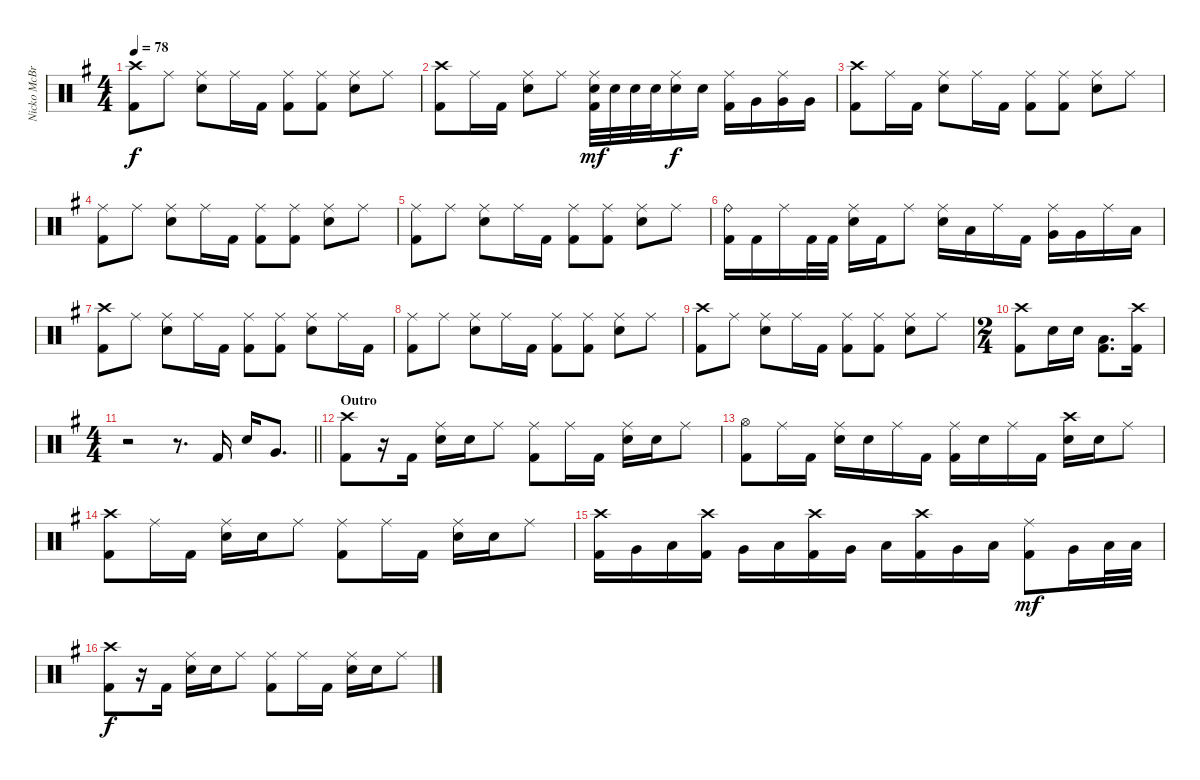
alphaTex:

\track ("Nicko McBrain" "Nicko McBr") {instrument percussion}
\staff {score}
\articulation defaults
\ts (4 4)
\tempo 78
\clef neutral
\ks g
("Crash high (hit)" "Kick (hit) 2").8{dy f} "Ride (middle)".8 ("Ride (middle)" "Electric Snare (hit)").8 "Ride (middle)".16 "Kick (hit) 2".16 ("Ride (middle)" "Kick (hit) 2").8 ("Ride (middle)" "Kick (hit) 2").8 ("Ride (middle)" "Electric Snare (hit)").8 "Ride (middle)".8 |
("Crash high (hit)" "Kick (hit) 2").8 "Ride (middle)".16 "Kick (hit) 2".16 ("Ride (middle)" "Electric Snare (hit)").8 "Ride (middle)".8 ("Ride (middle)" "Electric Snare (hit)" "Kick (hit) 2").32{dy mf} "Electric Snare (hit)".32 "Electric Snare (hit)".32 "Electric Snare (hit)".32 ("Ride (middle)" "Electric Snare (hit)").16{dy f} "Electric Snare (hit)".16 ("Ride (middle)" "Kick (hit) 2").16 "Very Low Tom (hit)".16 ("Ride (middle)" "Very Low Tom (hit)").16 "Very Low Tom (hit)".16 |
("Crash high (hit)" "Kick (hit) 2").8 "Ride (middle)".16 "Kick (hit) 2".16 ("Ride (middle)" "Electric Snare (hit)").8 "Ride (middle)".16 "Kick (hit) 2".16 ("Ride (middle)" "Kick (hit) 2").8 ("Ride (middle)" "Kick (hit) 2").8 ("Ride (middle)" "Electric Snare (hit)").8 "Ride (middle)".8 |
("Ride (middle)" "Kick (hit) 2").8 "Ride (middle)".8 ("Ride (middle)" "Electric Snare (hit)").8 "Ride (middle)".16 "Kick (hit) 2".16 ("Ride (middle)" "Kick (hit) 2").8 ("Ride (middle)" "Kick (hit) 2").8 ("Ride (middle)" "Electric Snare (hit)").8 "Ride (middle)".8 |
("Ride (middle)" "Kick (hit) 2").8 "Ride (middle)".8 ("Ride (middle)" "Electric Snare (hit)").8 "Ride (middle)".16 "Kick (hit) 2".16 ("Ride (middle)" "Kick (hit) 2").8 ("Ride (middle)" "Kick (hit) 2").8 ("Ride (middle)" "Electric Snare (hit)").8 "Ride (middle)".8 |
("Ride (bell)" "Kick (hit) 2").16 "Kick (hit) 2".16 "Ride (middle)".16 "Kick (hit) 2".32 "Kick (hit) 2".32 ("Ride (middle)" "Electric Snare (hit)").16 "Kick (hit) 2".16 "Ride (middle)".8 ("Ride (middle)" "Electric Snare (hit)").16 "Low Tom (hit)".16 "Ride (middle)".16 "Kick (hit) 2".16 ("Ride (middle)" "Very Low Tom (hit)").16 "Very Low Tom (hit)".16 "Ride (middle)".16 "Low Tom (hit)".16 |
("Crash high (hit)" "Kick (hit) 2").8 "Ride (middle)".8 ("Ride (middle)" "Electric Snare (hit)").8 "Ride (middle)".16 "Kick (hit) 2".16 ("Ride (middle)" "Kick (hit) 2").8 ("Ride (middle)" "Kick (hit) 2").8 ("Ride (middle)" "Electric Snare (hit)").8 "Ride (middle)".16 "Kick (hit) 2".16 |
("Ride (middle)" "Kick (hit) 2").8 "Ride (middle)".8 ("Ride (middle)" "Electric Snare (hit)").8 "Ride (middle)".16 "Kick (hit) 2".16 ("Ride (middle)" "Kick (hit) 2").8 ("Ride (middle)" "Kick (hit) 2").8 ("Ride (middle)" "Electric Snare (hit)").8 "Ride (middle)".8 |
("Crash high (hit)" "Kick (hit) 2").8 "Ride (middle)".8 ("Ride (middle)" "Electric Snare (hit)").8 "Ride (middle)".16 "Kick (hit) 2".16 ("Ride (middle)" "Kick (hit) 2").8 ("Ride (middle)" "Kick (hit) 2").8 ("Ride (middle)" "Electric Snare (hit)").8 "Ride (middle)".8 |
\ts (2 4)
("Crash high (hit)" "Kick (hit) 2").8 "Electric Snare (hit)".16 "Electric Snare (hit)".16 ("Low Tom (hit)" "Kick (hit) 2").8{d} ("Crash high (hit)" "Kick (hit) 2").16 |
\ts (4 4)
\barLineRight lightlight
r.2 r.8{d} "Kick (hit) 2".16 "Electric Snare (hit)".16 "Very Low Tom (hit)".8{d} |
\section ("" "Outro")
("Crash high (hit)" "Kick (hit) 2").8 r.16 "Kick (hit) 2".16 ("Ride (middle)" "Electric Snare (hit)").16 "Electric Snare (hit)".16 "Ride (middle)".8 ("Ride (middle)" "Kick (hit) 2").8 "Ride (middle)".16 "Kick (hit) 2".16 ("Ride (middle)" "Electric Snare (hit)").16 "Electric Snare (hit)".16 "Ride (middle)".8 |
("Hi-Hat (open)" "Kick (hit) 2").8 "Ride (middle)".16 "Kick (hit) 2".16 ("Ride (middle)" "Electric Snare (hit)").16 "Electric Snare (hit)".16 "Ride (middle)".16 "Kick (hit) 2".16 ("Ride (middle)" "Kick (hit) 2").16 "Electric Snare (hit)".16 "Ride (middle)".16 "Kick (hit) 2".16 ("Crash high (hit)" "Electric Snare (hit)").16 "Electric Snare (hit)".16 "Ride (middle)".8 |
("Crash high (hit)" "Kick (hit) 2").8 "Ride (middle)".16 "Kick (hit) 2".16 ("Ride (middle)" "Electric Snare (hit)").16 "Electric Snare (hit)".16 "Ride (middle)".8 ("Ride (middle)" "Kick (hit) 2").8 "Ride (middle)".16 "Kick (hit) 2".16 ("Ride (middle)" "Electric Snare (hit)").16 "Electric Snare (hit)".16 "Ride (middle)".8 |
("Crash high (hit)" "Kick (hit) 2").16 "Very Low Tom (hit)".16 "Low Tom (hit)".16 ("Crash high (hit)" "Kick (hit) 2").16 "Very Low Tom (hit)".16 "Low Tom (hit)".16 ("Crash high (hit)" "Kick (hit) 2").16 "Very Low Tom (hit)".16 "Low Tom (hit)".16 ("Crash high (hit)" "Kick (hit) 2").16 "Very Low Tom (hit)".16 "Low Tom (hit)".16 ("Ride (middle)" "Kick (hit) 2").8{dy mf} "Very Low Tom (hit)".16 "Low Tom (hit)".32 "Low Tom (hit)".32 |
("Crash high (hit)" "Kick (hit) 2").8{dy f} r.16 "Kick (hit) 2".16 ("Ride (middle)" "Electric Snare (hit)").16 "Electric Snare (hit)".16 "Ride (middle)".8 ("Ride (middle)" "Kick (hit) 2").8 "Ride (middle)".16 "Kick (hit) 2".16 ("Ride (middle)" "Electric Snare (hit)").16 "Electric Snare (hit)".16 "Ride (middle)".8
